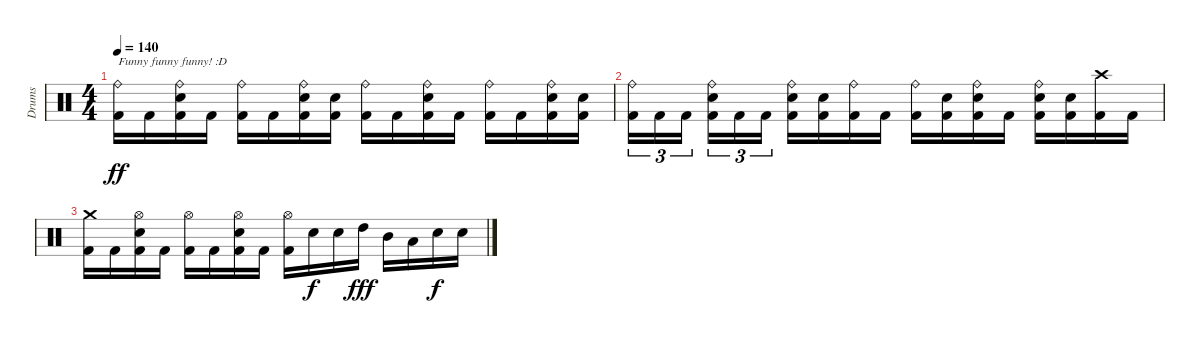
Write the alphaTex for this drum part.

\track ("Drums" "Drums") {instrument percussion}
\staff {score}
\articulation defaults
\ts (4 4)
\tempo 140
\clef neutral
\ks c
("Ride (bell)" "Kick (hit) 2").16{txt "Funny funny funny! :D" dy ff} "Kick (hit) 2".16 ("Ride (bell)" "Snare (hit) 2" "Kick (hit) 2").16 "Kick (hit) 2".16 ("Ride (bell)" "Kick (hit) 2").16 "Kick (hit) 2".16 ("Ride (bell)" "Snare (hit) 2" "Kick (hit) 2").16 ("Snare (hit) 2" "Kick (hit) 2").16 ("Ride (bell)" "Kick (hit) 2").16 "Kick (hit) 2".16 ("Ride (bell)" "Snare (hit) 2" "Kick (hit) 2").16 "Kick (hit) 2".16 ("Ride (bell)" "Kick (hit) 2").16 "Kick (hit) 2".16 ("Ride (bell)" "Snare (hit) 2" "Kick (hit) 2").16 ("Snare (hit) 2" "Kick (hit) 2").16 |
("Ride (bell)" "Kick (hit) 2").16{tu (3 2)} "Kick (hit) 2".16{tu (3 2)} "Kick (hit) 2".16{tu (3 2)} ("Ride (bell)" "Snare (hit) 2" "Kick (hit) 2").16{tu (3 2)} "Kick (hit) 2".16{tu (3 2)} "Kick (hit) 2".16{tu (3 2)} ("Ride (bell)" "Snare (hit) 2" "Kick (hit) 2").16 ("Snare (hit) 2" "Kick (hit) 2").16 ("Ride (bell)" "Kick (hit) 2").16 "Kick (hit) 2".16 ("Ride (bell)" "Kick (hit) 2").16 ("Snare (hit) 2" "Kick (hit) 2").16 ("Ride (bell)" "Snare (hit) 2" "Kick (hit) 2").16 "Kick (hit) 2".16 ("Ride (bell)" "Snare (hit) 2" "Kick (hit) 2").16 ("Snare (hit) 2" "Kick (hit) 2").16 ("Crash high (hit)" "Kick (hit) 2").16 "Kick (hit) 2".16 |
("Crash medium (hit)" "Kick (hit) 2").16 "Kick (hit) 2".16 ("Hi-Hat (open)" "Snare (hit) 2" "Kick (hit) 2").16 "Kick (hit) 2".16 ("Hi-Hat (open)" "Kick (hit) 2").16 "Kick (hit) 2".16 ("Hi-Hat (open)" "Snare (hit) 2" "Kick (hit) 2").16 "Kick (hit) 2".16 ("Hi-Hat (open)" "Kick (hit) 2").16 "Snare (hit) 2".16{dy f} "Snare (hit) 2".16 "High Tom (hit)".16{dy fff} "Mid Tom (hit)".16 "Low Tom (hit)".16 "Snare (hit) 2".16{dy f} "Snare (hit) 2".16
